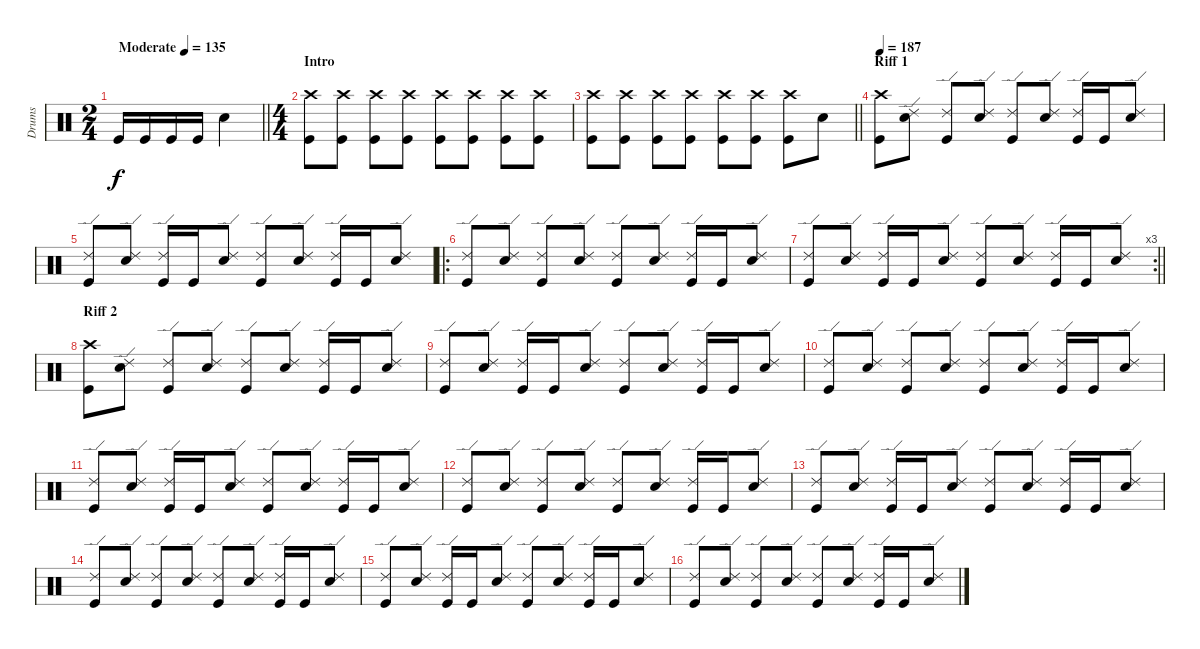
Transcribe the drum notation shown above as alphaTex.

\track ("Drums" "Drums") {instrument percussion}
\staff {score}
\articulation defaults
\ts (2 4)
\tempo (135 "Moderate")
\clef neutral
\barLineRight lightlight
\ks c "Kick (hit)".16{dy f} "Kick (hit)".16 "Kick (hit)".16 "Kick (hit)".16 "Snare (hit) 2".4
|
\ts (4 4)
\section ("" "Intro")
("Crash high (hit)" "Kick (hit)").8 ("Crash high (hit)" "Kick (hit)").8 ("Crash high (hit)" "Kick (hit)").8 ("Crash high (hit)" "Kick (hit)").8 ("Crash high (hit)" "Kick (hit)").8 ("Crash high (hit)" "Kick (hit)").8 ("Crash high (hit)" "Kick (hit)").8 ("Crash high (hit)" "Kick (hit)").8 |
\barLineRight lightlight
("Crash high (hit)" "Kick (hit)").8 ("Crash high (hit)" "Kick (hit)").8 ("Crash high (hit)" "Kick (hit)").8 ("Crash high (hit)" "Kick (hit)").8 ("Crash high (hit)" "Kick (hit)").8 ("Crash high (hit)" "Kick (hit)").8 ("Crash high (hit)" "Kick (hit)").8 "Snare (hit) 2".8 |
\section ("" "Riff 1")
\tempo 187
("Crash high (hit)" "Kick (hit)").8 ("Ride (edge) 2" "Snare (hit) 2").8 ("Ride (edge) 2" "Kick (hit)").8 ("Ride (edge) 2" "Snare (hit) 2").8 ("Ride (edge) 2" "Kick (hit)").8 ("Ride (edge) 2" "Snare (hit) 2").8 ("Ride (edge) 2" "Kick (hit)").16 "Kick (hit)".16 ("Ride (edge) 2" "Snare (hit) 2").8 |
("Ride (edge) 2" "Kick (hit)").8 ("Ride (edge) 2" "Snare (hit) 2").8 ("Ride (edge) 2" "Kick (hit)").16 "Kick (hit)".16 ("Ride (edge) 2" "Snare (hit) 2").8 ("Ride (edge) 2" "Kick (hit)").8 ("Ride (edge) 2" "Snare (hit) 2").8 ("Ride (edge) 2" "Kick (hit)").16 "Kick (hit)".16 ("Ride (edge) 2" "Snare (hit) 2").8 |
\ro
("Ride (edge) 2" "Kick (hit)").8 ("Ride (edge) 2" "Snare (hit) 2").8 ("Ride (edge) 2" "Kick (hit)").8 ("Ride (edge) 2" "Snare (hit) 2").8 ("Ride (edge) 2" "Kick (hit)").8 ("Ride (edge) 2" "Snare (hit) 2").8 ("Ride (edge) 2" "Kick (hit)").16 "Kick (hit)".16 ("Ride (edge) 2" "Snare (hit) 2").8 |
\rc 3
\barLineRight lightlight
("Ride (edge) 2" "Kick (hit)").8 ("Ride (edge) 2" "Snare (hit) 2").8 ("Ride (edge) 2" "Kick (hit)").16 "Kick (hit)".16 ("Ride (edge) 2" "Snare (hit) 2").8 ("Ride (edge) 2" "Kick (hit)").8 ("Ride (edge) 2" "Snare (hit) 2").8 ("Ride (edge) 2" "Kick (hit)").16 "Kick (hit)".16 ("Ride (edge) 2" "Snare (hit) 2").8 |
\section ("" "Riff 2")
("Crash high (hit)" "Kick (hit)").8 ("Ride (edge) 2" "Snare (hit) 2").8 ("Ride (edge) 2" "Kick (hit)").8 ("Ride (edge) 2" "Snare (hit) 2").8 ("Ride (edge) 2" "Kick (hit)").8 ("Ride (edge) 2" "Snare (hit) 2").8 ("Ride (edge) 2" "Kick (hit)").16 "Kick (hit)".16 ("Ride (edge) 2" "Snare (hit) 2").8 |
("Ride (edge) 2" "Kick (hit)").8 ("Ride (edge) 2" "Snare (hit) 2").8 ("Ride (edge) 2" "Kick (hit)").16 "Kick (hit)".16 ("Ride (edge) 2" "Snare (hit) 2").8 ("Ride (edge) 2" "Kick (hit)").8 ("Ride (edge) 2" "Snare (hit) 2").8 ("Ride (edge) 2" "Kick (hit)").16 "Kick (hit)".16 ("Ride (edge) 2" "Snare (hit) 2").8 |
("Ride (edge) 2" "Kick (hit)").8 ("Ride (edge) 2" "Snare (hit) 2").8 ("Ride (edge) 2" "Kick (hit)").8 ("Ride (edge) 2" "Snare (hit) 2").8 ("Ride (edge) 2" "Kick (hit)").8 ("Ride (edge) 2" "Snare (hit) 2").8 ("Ride (edge) 2" "Kick (hit)").16 "Kick (hit)".16 ("Ride (edge) 2" "Snare (hit) 2").8 |
("Ride (edge) 2" "Kick (hit)").8 ("Ride (edge) 2" "Snare (hit) 2").8 ("Ride (edge) 2" "Kick (hit)").16 "Kick (hit)".16 ("Ride (edge) 2" "Snare (hit) 2").8 ("Ride (edge) 2" "Kick (hit)").8 ("Ride (edge) 2" "Snare (hit) 2").8 ("Ride (edge) 2" "Kick (hit)").16 "Kick (hit)".16 ("Ride (edge) 2" "Snare (hit) 2").8 |
("Ride (edge) 2" "Kick (hit)").8 ("Ride (edge) 2" "Snare (hit) 2").8 ("Ride (edge) 2" "Kick (hit)").8 ("Ride (edge) 2" "Snare (hit) 2").8 ("Ride (edge) 2" "Kick (hit)").8 ("Ride (edge) 2" "Snare (hit) 2").8 ("Ride (edge) 2" "Kick (hit)").16 "Kick (hit)".16 ("Ride (edge) 2" "Snare (hit) 2").8 |
("Ride (edge) 2" "Kick (hit)").8 ("Ride (edge) 2" "Snare (hit) 2").8 ("Ride (edge) 2" "Kick (hit)").16 "Kick (hit)".16 ("Ride (edge) 2" "Snare (hit) 2").8 ("Ride (edge) 2" "Kick (hit)").8 ("Ride (edge) 2" "Snare (hit) 2").8 ("Ride (edge) 2" "Kick (hit)").16 "Kick (hit)".16 ("Ride (edge) 2" "Snare (hit) 2").8 |
("Ride (edge) 2" "Kick (hit)").8 ("Ride (edge) 2" "Snare (hit) 2").8 ("Ride (edge) 2" "Kick (hit)").8 ("Ride (edge) 2" "Snare (hit) 2").8 ("Ride (edge) 2" "Kick (hit)").8 ("Ride (edge) 2" "Snare (hit) 2").8 ("Ride (edge) 2" "Kick (hit)").16 "Kick (hit)".16 ("Ride (edge) 2" "Snare (hit) 2").8 |
("Ride (edge) 2" "Kick (hit)").8 ("Ride (edge) 2" "Snare (hit) 2").8 ("Ride (edge) 2" "Kick (hit)").16 "Kick (hit)".16 ("Ride (edge) 2" "Snare (hit) 2").8 ("Ride (edge) 2" "Kick (hit)").8 ("Ride (edge) 2" "Snare (hit) 2").8 ("Ride (edge) 2" "Kick (hit)").16 "Kick (hit)".16 ("Ride (edge) 2" "Snare (hit) 2").8 |
("Ride (edge) 2" "Kick (hit)").8 ("Ride (edge) 2" "Snare (hit) 2").8 ("Ride (edge) 2" "Kick (hit)").8 ("Ride (edge) 2" "Snare (hit) 2").8 ("Ride (edge) 2" "Kick (hit)").8 ("Ride (edge) 2" "Snare (hit) 2").8 ("Ride (edge) 2" "Kick (hit)").16 "Kick (hit)".16 ("Ride (edge) 2" "Snare (hit) 2").8
